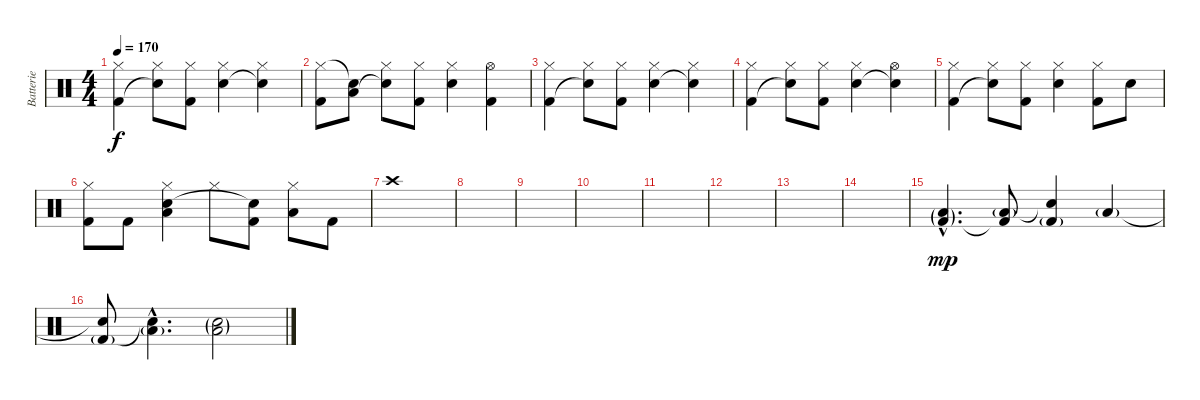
\track ("Batterie" "Batterie") {instrument percussion}
\staff {score}
\articulation defaults
\ts (4 4)
\tempo 170
\clef neutral
\ks c
("Kick (hit) 2" "Hi-Hat (closed)").4{dy f} ("Snare (hit)"{t} "Hi-Hat (closed)").8 ("Kick (hit) 2" "Hi-Hat (closed)").8 ("Snare (hit) 2" "Hi-Hat (closed)").4 ("Snare (hit)"{t} "Hi-Hat (closed)").4 |
("Kick (hit) 2" "Hi-Hat (closed)").8 ("Low Tom (hit)" "Snare (hit)"{t}).8 ("Snare (hit)"{t} "Hi-Hat (closed)").8 ("Kick (hit) 2" "Hi-Hat (closed)").8 ("Snare (hit) 2" "Hi-Hat (closed)").4 ("Kick (hit) 2" "Hi-Hat (open)").4 |
("Kick (hit) 2" "Hi-Hat (closed)").4 ("Snare (hit)"{t} "Hi-Hat (closed)").8 ("Kick (hit) 2" "Hi-Hat (closed)").8 ("Snare (hit) 2" "Hi-Hat (closed)").4 ("Snare (hit)"{t} "Hi-Hat (closed)").4 |
("Kick (hit) 2" "Hi-Hat (closed)").4 ("Snare (hit)"{t} "Hi-Hat (closed)").8 ("Kick (hit) 2" "Hi-Hat (closed)").8 ("Snare (hit) 2" "Hi-Hat (closed)").4 ("Snare (hit)"{t} "Hi-Hat (open)").4 |
("Kick (hit) 2" "Hi-Hat (closed)").4 ("Snare (hit)"{t} "Hi-Hat (closed)").8 ("Kick (hit) 2" "Hi-Hat (closed)").8 ("Snare (hit) 2" "Hi-Hat (closed)").4 ("Kick (hit) 2" "Hi-Hat (closed)").8 "Snare (hit) 2".8 |
("Kick (hit) 2" "Hi-Hat (closed)").8 "Kick (hit) 2".8 ("Low Tom (hit)" "Snare (hit) 2" "Hi-Hat (closed)").4 "Hi-Hat (closed)".8 ("Kick (hit) 2" "Snare (hit)"{t}).8 ("Low Tom (hit)" "Hi-Hat (closed)").8 "Kick (hit) 2".8 |
"Crash high (hit)".1 |
|
|
|
|
|
|
|
("Low Tom (hit)"{g hac} "Kick (hit) 2"{g hac}).4{d dy mp} ("Low Tom (hit)"{g} "Kick (hit) 2"{t}).8 ("Snare (hit)"{t} "Kick (hit) 2"{g}).4 "Low Tom (hit)"{g}.4 |
("Snare (hit)"{t} "Kick (hit) 2"{g}).8 ("Low Tom (hit)"{g hac} "Snare (hit)"{hac t}).4{d} ("Snare (hit) 2"{g} "Low Tom (hit)"{g}).2
